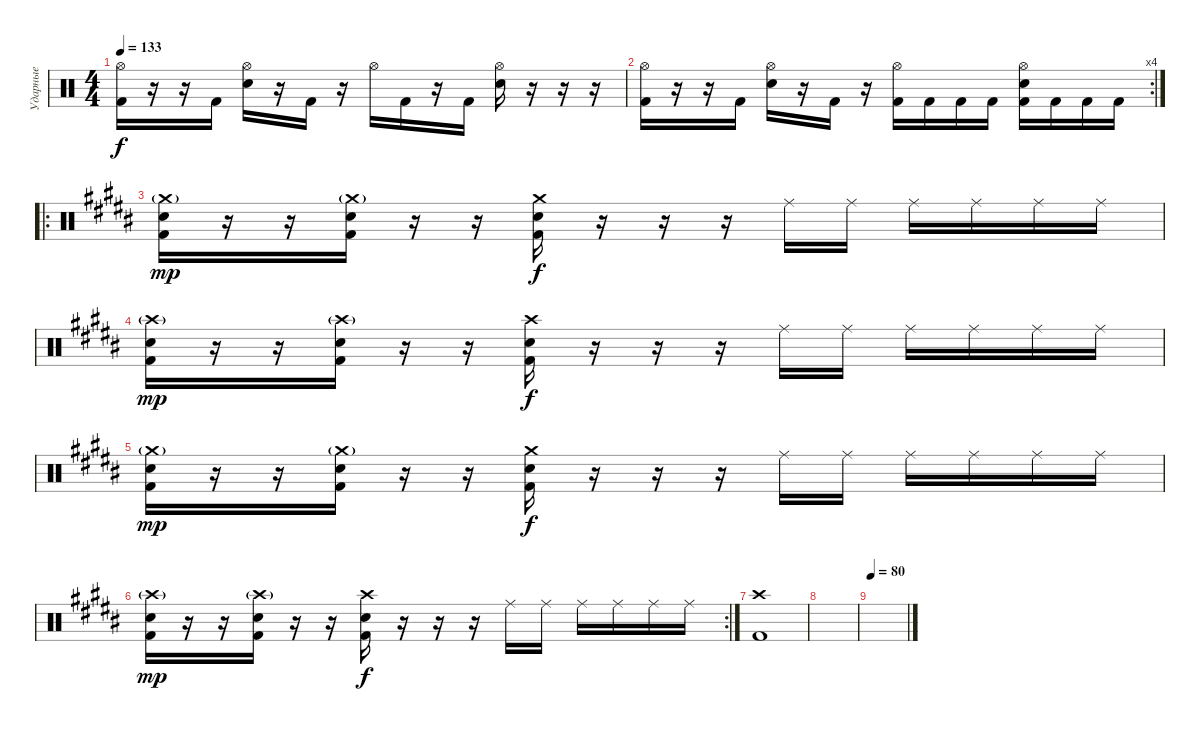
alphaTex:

\track ("Ударные" "Ударные") {instrument percussion}
\staff {score}
\articulation defaults
\ts (4 4)
\tempo 133
\clef neutral
\ks c
("Hi-Hat (open)" "Kick (hit) 2").16{dy f} r.16 r.16 "Kick (hit) 2".16 ("Hi-Hat (open)" "Electric Snare (hit)").16 r.16 "Kick (hit) 2".16 r.16 "Hi-Hat (open)".16 "Kick (hit) 2".16 r.16 "Kick (hit) 2".16 ("Hi-Hat (open)" "Electric Snare (hit)").16 r.16 r.16 r.16 |
\rc 4
("Hi-Hat (open)" "Kick (hit) 2").16 r.16 r.16 "Kick (hit) 2".16 ("Hi-Hat (open)" "Electric Snare (hit)").16 r.16 "Kick (hit) 2".16 r.16 ("Hi-Hat (open)" "Kick (hit) 2").16 "Kick (hit) 2".16 "Kick (hit) 2".16 "Kick (hit) 2".16 ("Hi-Hat (open)" "Electric Snare (hit)" "Kick (hit) 2").16 "Kick (hit) 2".16 "Kick (hit) 2".16 "Kick (hit) 2".16 |
\ro
\ks g#minor
("Crash medium (hit)"{g} "Electric Snare (hit)" "Kick (hit) 2").16{dy mp} r.16 r.16 ("Crash medium (hit)"{g} "Electric Snare (hit)" "Kick (hit) 2").16 r.16 r.16 ("Crash medium (hit)" "Electric Snare (hit)" "Kick (hit) 2").16{dy f} r.16 r.16 r.16 "Ride (middle)".16 "Ride (middle)".16 "Ride (middle)".16 "Ride (middle)".16 "Ride (middle)".16 "Ride (middle)".16 |
("Crash high (hit)"{g} "Electric Snare (hit)" "Kick (hit) 2").16{dy mp} r.16 r.16 ("Crash high (hit)"{g} "Electric Snare (hit)" "Kick (hit) 2").16 r.16 r.16 ("Crash high (hit)" "Electric Snare (hit)" "Kick (hit) 2").16{dy f} r.16 r.16 r.16 "Ride (middle)".16 "Ride (middle)".16 "Ride (middle)".16 "Ride (middle)".16 "Ride (middle)".16 "Ride (middle)".16 |
("Crash medium (hit)"{g} "Electric Snare (hit)" "Kick (hit) 2").16{dy mp} r.16 r.16 ("Crash medium (hit)"{g} "Electric Snare (hit)" "Kick (hit) 2").16 r.16 r.16 ("Crash medium (hit)" "Electric Snare (hit)" "Kick (hit) 2").16{dy f} r.16 r.16 r.16 "Ride (middle)".16 "Ride (middle)".16 "Ride (middle)".16 "Ride (middle)".16 "Ride (middle)".16 "Ride (middle)".16 |
\rc 2
("Crash high (hit)"{g} "Electric Snare (hit)" "Kick (hit) 2").16{dy mp} r.16 r.16 ("Crash high (hit)"{g} "Electric Snare (hit)" "Kick (hit) 2").16 r.16 r.16 ("Crash high (hit)" "Electric Snare (hit)" "Kick (hit) 2").16{dy f} r.16 r.16 r.16 "Ride (middle)".16 "Ride (middle)".16 "Ride (middle)".16 "Ride (middle)".16 "Ride (middle)".16 "Ride (middle)".16 |
("Crash high (hit)" "Kick (hit) 2").1 |
|
\tempo 80
